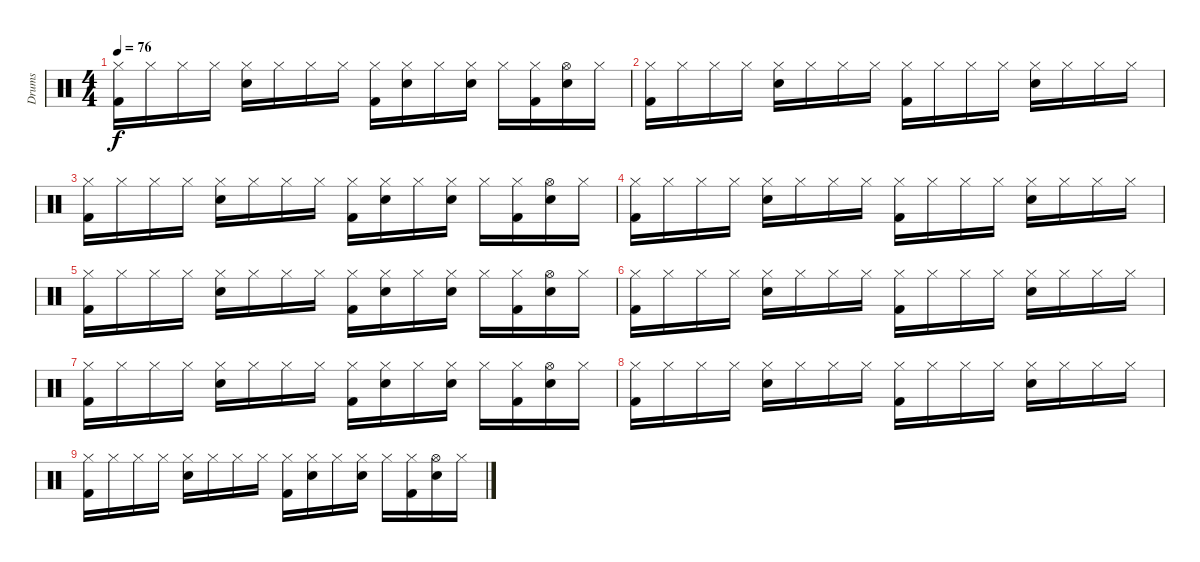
\track ("Drums" "Drums") {instrument percussion}
\staff {score}
\articulation defaults
\ts (4 4)
\tempo 76
\clef neutral
\ks c
("Hi-Hat (closed)" "Kick (hit) 2").16{dy f} "Hi-Hat (closed)".16 "Hi-Hat (closed)".16 "Hi-Hat (closed)".16 ("Hi-Hat (closed)" "Snare (hit) 2").16 "Hi-Hat (closed)".16 "Hi-Hat (closed)".16 "Hi-Hat (closed)".16 ("Hi-Hat (closed)" "Kick (hit) 2").16 ("Hi-Hat (closed)" "Snare (hit) 2").16 "Hi-Hat (closed)".16 ("Hi-Hat (closed)" "Snare (hit) 2").16 "Hi-Hat (closed)".16 ("Hi-Hat (closed)" "Kick (hit) 2").16 ("Hi-Hat (open)" "Snare (hit) 2").16 "Hi-Hat (closed)".16 |
("Hi-Hat (closed)" "Kick (hit) 2").16 "Hi-Hat (closed)".16 "Hi-Hat (closed)".16 "Hi-Hat (closed)".16 ("Hi-Hat (closed)" "Snare (hit) 2").16 "Hi-Hat (closed)".16 "Hi-Hat (closed)".16 "Hi-Hat (closed)".16 ("Hi-Hat (closed)" "Kick (hit) 2").16 "Hi-Hat (closed)".16 "Hi-Hat (closed)".16 "Hi-Hat (closed)".16 ("Hi-Hat (closed)" "Snare (hit) 2").16 "Hi-Hat (closed)".16 "Hi-Hat (closed)".16 "Hi-Hat (closed)".16 |
("Hi-Hat (closed)" "Kick (hit) 2").16 "Hi-Hat (closed)".16 "Hi-Hat (closed)".16 "Hi-Hat (closed)".16 ("Hi-Hat (closed)" "Snare (hit) 2").16 "Hi-Hat (closed)".16 "Hi-Hat (closed)".16 "Hi-Hat (closed)".16 ("Hi-Hat (closed)" "Kick (hit) 2").16 ("Hi-Hat (closed)" "Snare (hit) 2").16 "Hi-Hat (closed)".16 ("Hi-Hat (closed)" "Snare (hit) 2").16 "Hi-Hat (closed)".16 ("Hi-Hat (closed)" "Kick (hit) 2").16 ("Hi-Hat (open)" "Snare (hit) 2").16 "Hi-Hat (closed)".16 |
("Hi-Hat (closed)" "Kick (hit) 2").16 "Hi-Hat (closed)".16 "Hi-Hat (closed)".16 "Hi-Hat (closed)".16 ("Hi-Hat (closed)" "Snare (hit) 2").16 "Hi-Hat (closed)".16 "Hi-Hat (closed)".16 "Hi-Hat (closed)".16 ("Hi-Hat (closed)" "Kick (hit) 2").16 "Hi-Hat (closed)".16 "Hi-Hat (closed)".16 "Hi-Hat (closed)".16 ("Hi-Hat (closed)" "Snare (hit) 2").16 "Hi-Hat (closed)".16 "Hi-Hat (closed)".16 "Hi-Hat (closed)".16 |
("Hi-Hat (closed)" "Kick (hit) 2").16 "Hi-Hat (closed)".16 "Hi-Hat (closed)".16 "Hi-Hat (closed)".16 ("Hi-Hat (closed)" "Snare (hit) 2").16 "Hi-Hat (closed)".16 "Hi-Hat (closed)".16 "Hi-Hat (closed)".16 ("Hi-Hat (closed)" "Kick (hit) 2").16 ("Hi-Hat (closed)" "Snare (hit) 2").16 "Hi-Hat (closed)".16 ("Hi-Hat (closed)" "Snare (hit) 2").16 "Hi-Hat (closed)".16 ("Hi-Hat (closed)" "Kick (hit) 2").16 ("Hi-Hat (open)" "Snare (hit) 2").16 "Hi-Hat (closed)".16 |
("Hi-Hat (closed)" "Kick (hit) 2").16 "Hi-Hat (closed)".16 "Hi-Hat (closed)".16 "Hi-Hat (closed)".16 ("Hi-Hat (closed)" "Snare (hit) 2").16 "Hi-Hat (closed)".16 "Hi-Hat (closed)".16 "Hi-Hat (closed)".16 ("Hi-Hat (closed)" "Kick (hit) 2").16 "Hi-Hat (closed)".16 "Hi-Hat (closed)".16 "Hi-Hat (closed)".16 ("Hi-Hat (closed)" "Snare (hit) 2").16 "Hi-Hat (closed)".16 "Hi-Hat (closed)".16 "Hi-Hat (closed)".16 |
("Hi-Hat (closed)" "Kick (hit) 2").16 "Hi-Hat (closed)".16 "Hi-Hat (closed)".16 "Hi-Hat (closed)".16 ("Hi-Hat (closed)" "Snare (hit) 2").16 "Hi-Hat (closed)".16 "Hi-Hat (closed)".16 "Hi-Hat (closed)".16 ("Hi-Hat (closed)" "Kick (hit) 2").16 ("Hi-Hat (closed)" "Snare (hit) 2").16 "Hi-Hat (closed)".16 ("Hi-Hat (closed)" "Snare (hit) 2").16 "Hi-Hat (closed)".16 ("Hi-Hat (closed)" "Kick (hit) 2").16 ("Hi-Hat (open)" "Snare (hit) 2").16 "Hi-Hat (closed)".16 |
("Hi-Hat (closed)" "Kick (hit) 2").16 "Hi-Hat (closed)".16 "Hi-Hat (closed)".16 "Hi-Hat (closed)".16 ("Hi-Hat (closed)" "Snare (hit) 2").16 "Hi-Hat (closed)".16 "Hi-Hat (closed)".16 "Hi-Hat (closed)".16 ("Hi-Hat (closed)" "Kick (hit) 2").16 "Hi-Hat (closed)".16 "Hi-Hat (closed)".16 "Hi-Hat (closed)".16 ("Hi-Hat (closed)" "Snare (hit) 2").16 "Hi-Hat (closed)".16 "Hi-Hat (closed)".16 "Hi-Hat (closed)".16 |
("Hi-Hat (closed)" "Kick (hit) 2").16 "Hi-Hat (closed)".16 "Hi-Hat (closed)".16 "Hi-Hat (closed)".16 ("Hi-Hat (closed)" "Snare (hit) 2").16 "Hi-Hat (closed)".16 "Hi-Hat (closed)".16 "Hi-Hat (closed)".16 ("Hi-Hat (closed)" "Kick (hit) 2").16 ("Hi-Hat (closed)" "Snare (hit) 2").16 "Hi-Hat (closed)".16 ("Hi-Hat (closed)" "Snare (hit) 2").16 "Hi-Hat (closed)".16 ("Hi-Hat (closed)" "Kick (hit) 2").16 ("Hi-Hat (open)" "Snare (hit) 2").16 "Hi-Hat (closed)".16
